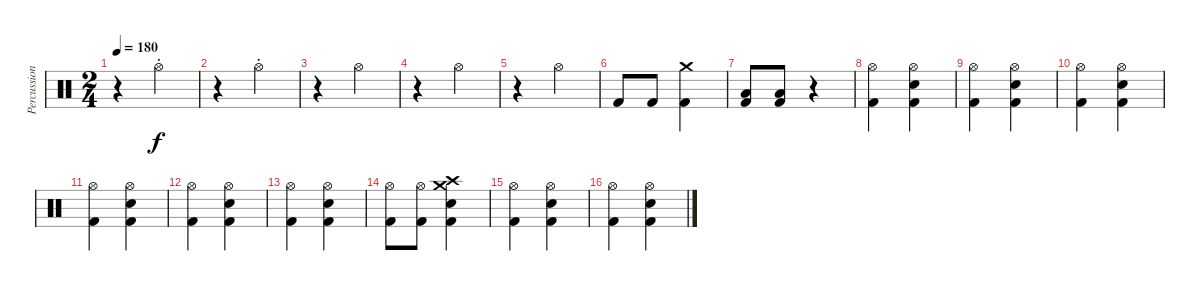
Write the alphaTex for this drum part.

\track ("Percussion" "Percussion") {instrument percussion}
\staff {score}
\articulation defaults
\ts (2 4)
\tempo 180
\clef neutral
\ks c
r.4{dy f} "Hi-Hat (open)"{st}.4 |
r.4 "Hi-Hat (open)"{st}.4 |
r.4 "Hi-Hat (open)".4 |
r.4 "Hi-Hat (open)".4 |
r.4 "Hi-Hat (open)".4 |
"Kick (hit) 2".8 "Kick (hit) 2".8 ("Crash medium (hit)" "Kick (hit) 2").4 |
("Low Floor Tom (hit)" "Kick (hit) 2").8 ("Low Floor Tom (hit)" "Kick (hit) 2").8 r.4 |
("Hi-Hat (open)" "Kick (hit) 2").4 ("Hi-Hat (open)" "Snare (hit) 2" "Kick (hit) 2").4 |
("Hi-Hat (open)" "Kick (hit) 2").4 ("Hi-Hat (open)" "Snare (hit) 2" "Kick (hit) 2").4 |
("Hi-Hat (open)" "Kick (hit) 2").4 ("Hi-Hat (open)" "Snare (hit) 2" "Kick (hit) 2").4 |
("Hi-Hat (open)" "Kick (hit) 2").4 ("Hi-Hat (open)" "Snare (hit) 2" "Kick (hit) 2").4 |
("Hi-Hat (open)" "Kick (hit) 2").4 ("Hi-Hat (open)" "Snare (hit) 2" "Kick (hit) 2").4 |
("Hi-Hat (open)" "Kick (hit) 2").4 ("Hi-Hat (open)" "Snare (hit) 2" "Kick (hit) 2").4 |
("Hi-Hat (open)" "Kick (hit) 2").8 ("Hi-Hat (open)" "Kick (hit) 2").8 ("Crash medium (hit)" "Crash high (hit)" "Snare (hit) 2" "Kick (hit) 2").4 |
("Hi-Hat (open)" "Kick (hit) 2").4 ("Hi-Hat (open)" "Snare (hit) 2" "Kick (hit) 2").4 |
("Hi-Hat (open)" "Kick (hit) 2").4 ("Hi-Hat (open)" "Snare (hit) 2" "Kick (hit) 2").4
